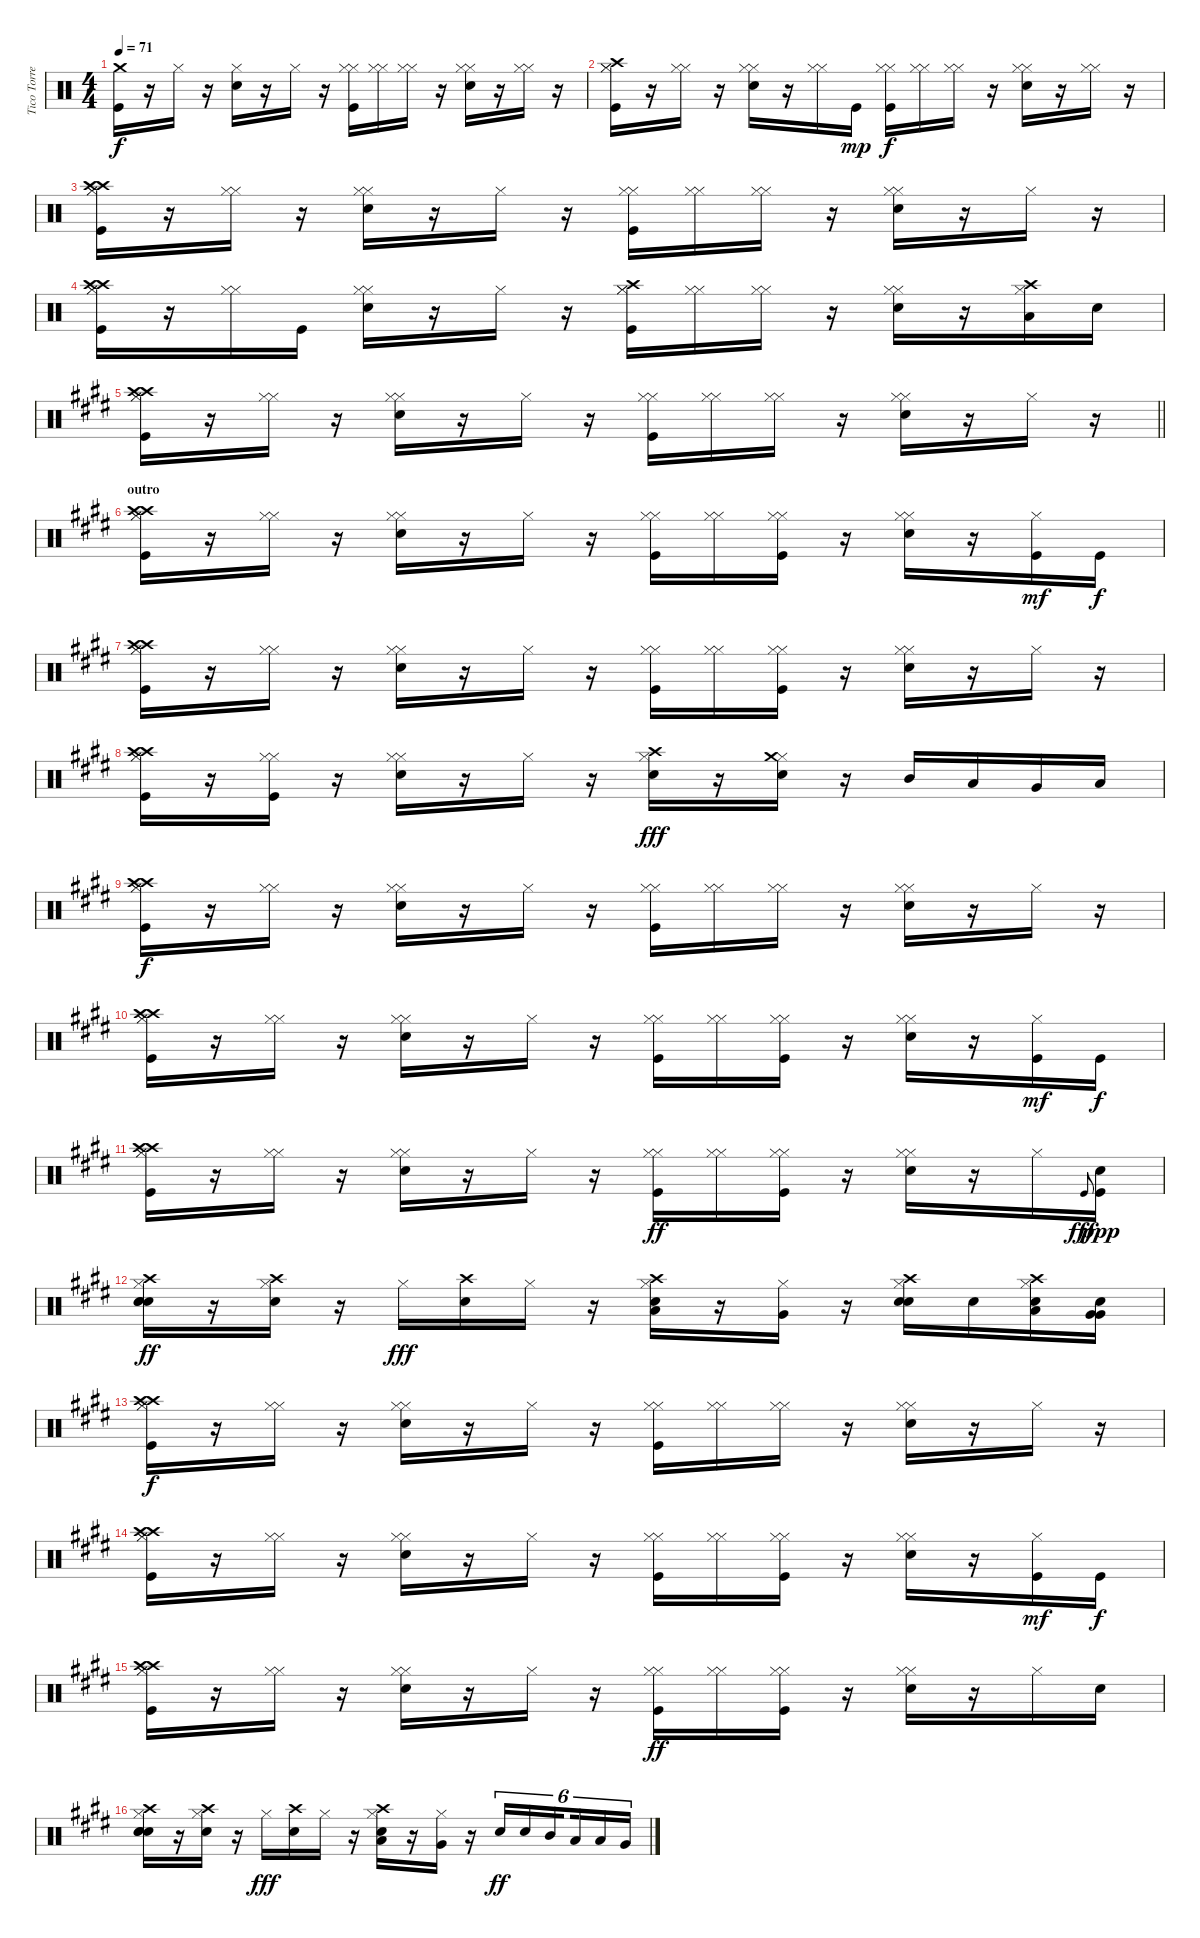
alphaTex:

\track ("Tico Torres" "Tico Torre") {instrument percussion}
\staff {score}
\articulation defaults
\ts (4 4)
\tempo 71
\clef neutral
\ks c
("Kick (hit)" "Crash medium (hit)").16{dy f} r.16 "Hi-Hat (closed)".16 r.16 ("Hi-Hat (closed)" "Snare (hit) 2").16 r.16 "Hi-Hat (closed)".16 r.16 ("Hi-Hat (closed)" "Hi-Hat (closed)" "Kick (hit)").16 ("Hi-Hat (closed)" "Hi-Hat (closed)").16 ("Hi-Hat (closed)" "Hi-Hat (closed)").16 r.16 ("Hi-Hat (closed)" "Hi-Hat (closed)" "Snare (hit) 2").16 r.16 ("Hi-Hat (closed)" "Hi-Hat (closed)").16 r.16 |
("Hi-Hat (closed)" "Kick (hit)" "Crash high (hit)" "Hi-Hat (closed)").16 r.16 ("Hi-Hat (closed)" "Hi-Hat (closed)").16 r.16 ("Hi-Hat (closed)" "Snare (hit) 2" "Hi-Hat (closed)").16 r.16 ("Hi-Hat (closed)" "Hi-Hat (closed)").16 "Kick (hit)".16{dy mp} ("Hi-Hat (closed)" "Kick (hit)" "Hi-Hat (closed)").16{dy f} ("Hi-Hat (closed)" "Hi-Hat (closed)").16 ("Hi-Hat (closed)" "Hi-Hat (closed)").16 r.16 ("Hi-Hat (closed)" "Snare (hit) 2" "Hi-Hat (closed)").16 r.16 ("Hi-Hat (closed)" "Hi-Hat (closed)").16 r.16 |
("Hi-Hat (closed)" "Crash high (hit)" "Hi-Hat (closed)" "Kick (hit)" "Crash high (hit)").16 r.16 ("Hi-Hat (closed)" "Hi-Hat (closed)").16 r.16 ("Hi-Hat (closed)" "Hi-Hat (closed)" "Snare (hit) 2").16 r.16 "Hi-Hat (closed)".16 r.16 ("Hi-Hat (closed)" "Hi-Hat (closed)" "Kick (hit)").16 ("Hi-Hat (closed)" "Hi-Hat (closed)").16 ("Hi-Hat (closed)" "Hi-Hat (closed)").16 r.16 ("Hi-Hat (closed)" "Hi-Hat (closed)" "Snare (hit) 2").16 r.16 "Hi-Hat (closed)".16 r.16 |
("Hi-Hat (closed)" "Crash high (hit)" "Hi-Hat (closed)" "Kick (hit)" "Crash high (hit)").16 r.16 ("Hi-Hat (closed)" "Hi-Hat (closed)").16 "Kick (hit)".16 ("Hi-Hat (closed)" "Hi-Hat (closed)" "Snare (hit) 2").16 r.16 "Hi-Hat (closed)".16 r.16 ("Crash high (hit)" "Hi-Hat (closed)" "Hi-Hat (closed)" "Kick (hit)").16 ("Hi-Hat (closed)" "Hi-Hat (closed)").16 ("Hi-Hat (closed)" "Hi-Hat (closed)").16 r.16 ("Hi-Hat (closed)" "Hi-Hat (closed)" "Snare (hit) 2").16 r.16 ("Crash high (hit)" "Low Tom (hit)" "Hi-Hat (closed)").16 "Snare (hit) 2".16 |
\barLineRight lightlight
\ks e
("Hi-Hat (closed)" "Crash high (hit)" "Hi-Hat (closed)" "Kick (hit)" "Crash high (hit)").16 r.16 ("Hi-Hat (closed)" "Hi-Hat (closed)").16 r.16 ("Hi-Hat (closed)" "Hi-Hat (closed)" "Snare (hit) 2").16 r.16 "Hi-Hat (closed)".16 r.16 ("Hi-Hat (closed)" "Hi-Hat (closed)" "Kick (hit)").16 ("Hi-Hat (closed)" "Hi-Hat (closed)").16 ("Hi-Hat (closed)" "Hi-Hat (closed)").16 r.16 ("Hi-Hat (closed)" "Hi-Hat (closed)" "Snare (hit) 2").16 r.16 "Hi-Hat (closed)".16 r.16 |
\section ("" "outro")
("Hi-Hat (closed)" "Crash high (hit)" "Hi-Hat (closed)" "Kick (hit)" "Crash high (hit)").16 r.16 ("Hi-Hat (closed)" "Hi-Hat (closed)").16 r.16 ("Hi-Hat (closed)" "Hi-Hat (closed)" "Snare (hit) 2").16 r.16 "Hi-Hat (closed)".16 r.16 ("Hi-Hat (closed)" "Hi-Hat (closed)" "Kick (hit)").16 ("Hi-Hat (closed)" "Hi-Hat (closed)").16 ("Kick (hit)" "Hi-Hat (closed)" "Hi-Hat (closed)").16 r.16 ("Hi-Hat (closed)" "Hi-Hat (closed)" "Snare (hit) 2").16 r.16 ("Kick (hit)" "Hi-Hat (closed)").16{dy mf} "Kick (hit)".16{dy f} |
("Hi-Hat (closed)" "Crash high (hit)" "Hi-Hat (closed)" "Kick (hit)" "Crash high (hit)").16 r.16 ("Hi-Hat (closed)" "Hi-Hat (closed)").16 r.16 ("Hi-Hat (closed)" "Hi-Hat (closed)" "Snare (hit) 2").16 r.16 "Hi-Hat (closed)".16 r.16 ("Hi-Hat (closed)" "Hi-Hat (closed)" "Kick (hit)").16 ("Hi-Hat (closed)" "Hi-Hat (closed)").16 ("Kick (hit)" "Hi-Hat (closed)" "Hi-Hat (closed)").16 r.16 ("Hi-Hat (closed)" "Hi-Hat (closed)" "Snare (hit) 2").16 r.16 "Hi-Hat (closed)".16 r.16 |
("Hi-Hat (closed)" "Crash high (hit)" "Hi-Hat (closed)" "Kick (hit)" "Crash high (hit)").16 r.16 ("Kick (hit)" "Hi-Hat (closed)" "Hi-Hat (closed)").16 r.16 ("Hi-Hat (closed)" "Hi-Hat (closed)" "Snare (hit) 2").16 r.16 "Hi-Hat (closed)".16 r.16 ("Snare (hit) 2" "Hi-Hat (closed)" "Crash high (hit)").16{dy fff} r.16 ("Snare (hit) 2" "Hi-Hat (closed)" "Crash medium (hit)").16 r.16 "Mid Tom (hit)".16 "Low Tom (hit)".16 "Very Low Tom (hit)".16 "Low Floor Tom (hit)".16 |
("Hi-Hat (closed)" "Crash high (hit)" "Hi-Hat (closed)" "Kick (hit)" "Crash high (hit)").16{dy f} r.16 ("Hi-Hat (closed)" "Hi-Hat (closed)").16 r.16 ("Hi-Hat (closed)" "Hi-Hat (closed)" "Snare (hit) 2").16 r.16 "Hi-Hat (closed)".16 r.16 ("Hi-Hat (closed)" "Hi-Hat (closed)" "Kick (hit)").16 ("Hi-Hat (closed)" "Hi-Hat (closed)").16 ("Hi-Hat (closed)" "Hi-Hat (closed)").16 r.16 ("Hi-Hat (closed)" "Hi-Hat (closed)" "Snare (hit) 2").16 r.16 "Hi-Hat (closed)".16 r.16 |
("Hi-Hat (closed)" "Crash high (hit)" "Hi-Hat (closed)" "Kick (hit)" "Crash high (hit)").16 r.16 ("Hi-Hat (closed)" "Hi-Hat (closed)").16 r.16 ("Hi-Hat (closed)" "Hi-Hat (closed)" "Snare (hit) 2").16 r.16 "Hi-Hat (closed)".16 r.16 ("Hi-Hat (closed)" "Hi-Hat (closed)" "Kick (hit)").16 ("Hi-Hat (closed)" "Hi-Hat (closed)").16 ("Kick (hit)" "Hi-Hat (closed)" "Hi-Hat (closed)").16 r.16 ("Hi-Hat (closed)" "Hi-Hat (closed)" "Snare (hit) 2").16 r.16 ("Kick (hit)" "Hi-Hat (closed)").16{dy mf} "Kick (hit)".16{dy f} |
("Hi-Hat (closed)" "Crash high (hit)" "Hi-Hat (closed)" "Kick (hit)" "Crash high (hit)").16 r.16 ("Hi-Hat (closed)" "Hi-Hat (closed)").16 r.16 ("Hi-Hat (closed)" "Hi-Hat (closed)" "Snare (hit) 2").16 r.16 "Hi-Hat (closed)".16 r.16 ("Hi-Hat (closed)" "Hi-Hat (closed)" "Kick (hit)").16{dy ff} ("Hi-Hat (closed)" "Hi-Hat (closed)").16 ("Kick (hit)" "Hi-Hat (closed)" "Hi-Hat (closed)").16 r.16 ("Hi-Hat (closed)" "Hi-Hat (closed)" "Snare (hit) 2").16 r.16 "Hi-Hat (closed)".16 "Kick (hit)".8{gr onbeat dy fff} ("Kick (hit)" "Snare (hit) 2").16{dy ppp} |
("Snare (hit) 2" "Snare (hit) 2" "Crash high (hit)" "Hi-Hat (closed)" "Snare (hit) 2").16{dy ff} r.16 ("Hi-Hat (closed)" "Crash high (hit)" "Snare (hit) 2").16 r.16 "Hi-Hat (closed)".16{dy fff} ("Crash high (hit)" "Snare (hit) 2").16 "Hi-Hat (closed)".16 r.16 ("Crash high (hit)" "Hi-Hat (closed)" "Low Tom (hit)" "Snare (hit) 2").16 r.16 ("Hi-Hat (closed)" "Very Low Tom (hit)").16 r.16 ("Crash high (hit)" "Hi-Hat (closed)" "Snare (hit) 2" "Snare (hit) 2").16 "Snare (hit) 2".16 ("Crash high (hit)" "Hi-Hat (closed)" "Snare (hit) 2" "Low Tom (hit)").16 ("Very Low Tom (hit)" "Very Low Tom (hit)" "Snare (hit) 2").16 |
("Hi-Hat (closed)" "Crash high (hit)" "Hi-Hat (closed)" "Kick (hit)" "Crash high (hit)").16{dy f} r.16 ("Hi-Hat (closed)" "Hi-Hat (closed)").16 r.16 ("Hi-Hat (closed)" "Hi-Hat (closed)" "Snare (hit) 2").16 r.16 "Hi-Hat (closed)".16 r.16 ("Hi-Hat (closed)" "Hi-Hat (closed)" "Kick (hit)").16 ("Hi-Hat (closed)" "Hi-Hat (closed)").16 ("Hi-Hat (closed)" "Hi-Hat (closed)").16 r.16 ("Hi-Hat (closed)" "Hi-Hat (closed)" "Snare (hit) 2").16 r.16 "Hi-Hat (closed)".16 r.16 |
("Hi-Hat (closed)" "Crash high (hit)" "Hi-Hat (closed)" "Kick (hit)" "Crash high (hit)").16 r.16 ("Hi-Hat (closed)" "Hi-Hat (closed)").16 r.16 ("Hi-Hat (closed)" "Hi-Hat (closed)" "Snare (hit) 2").16 r.16 "Hi-Hat (closed)".16 r.16 ("Hi-Hat (closed)" "Hi-Hat (closed)" "Kick (hit)").16 ("Hi-Hat (closed)" "Hi-Hat (closed)").16 ("Kick (hit)" "Hi-Hat (closed)" "Hi-Hat (closed)").16 r.16 ("Hi-Hat (closed)" "Hi-Hat (closed)" "Snare (hit) 2").16 r.16 ("Kick (hit)" "Hi-Hat (closed)").16{dy mf} "Kick (hit)".16{dy f} |
("Hi-Hat (closed)" "Crash high (hit)" "Hi-Hat (closed)" "Kick (hit)" "Crash high (hit)").16 r.16 ("Hi-Hat (closed)" "Hi-Hat (closed)").16 r.16 ("Hi-Hat (closed)" "Hi-Hat (closed)" "Snare (hit) 2").16 r.16 "Hi-Hat (closed)".16 r.16 ("Hi-Hat (closed)" "Hi-Hat (closed)" "Kick (hit)").16{dy ff} ("Hi-Hat (closed)" "Hi-Hat (closed)").16 ("Kick (hit)" "Hi-Hat (closed)" "Hi-Hat (closed)").16 r.16 ("Hi-Hat (closed)" "Hi-Hat (closed)" "Snare (hit) 2").16 r.16 "Hi-Hat (closed)".16 "Snare (hit) 2".16 |
("Snare (hit) 2" "Snare (hit) 2" "Crash high (hit)" "Hi-Hat (closed)" "Snare (hit) 2").16 r.16 ("Hi-Hat (closed)" "Crash high (hit)" "Snare (hit) 2").16 r.16 "Hi-Hat (closed)".16{dy fff} ("Crash high (hit)" "Snare (hit) 2").16 "Hi-Hat (closed)".16 r.16 ("Crash high (hit)" "Hi-Hat (closed)" "Low Tom (hit)" "Snare (hit) 2").16 r.16 ("Hi-Hat (closed)" "Very Low Tom (hit)").16 r.16 "Snare (hit) 2".16{tu (6 4) dy ff} "Snare (hit) 2".16{tu (6 4)} "Mid Tom (hit)".16{tu (6 4) beam splitsecondary} "Low Tom (hit)".16{tu (6 4)} "Low Tom (hit)".16{tu (6 4)} "Very Low Tom (hit)".16{tu (6 4)}
